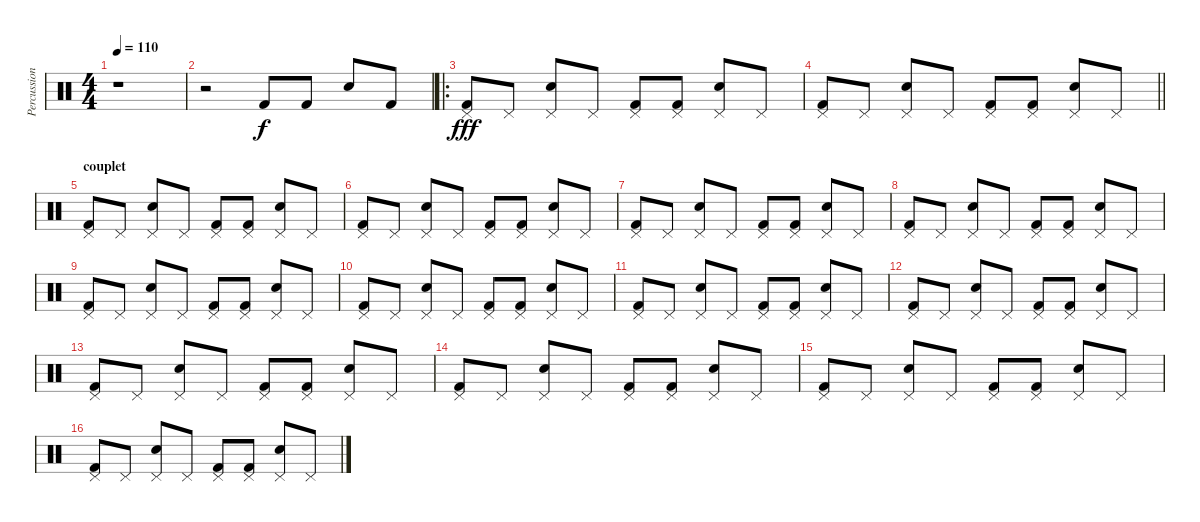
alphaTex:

\track ("Percussions" "Percussion") {instrument percussion}
\staff {score}
\articulation defaults
\ts (4 4)
\tempo 110
\clef neutral
\ks c
r.1{dy f} |
r.2 "Kick (hit) 2".8 "Kick (hit) 2".8 "Electric Snare (hit)".8 "Kick (hit) 2".8 |
\ro
("Pedal Hi-Hat (hit)" "Kick (hit) 2").8{dy fff} "Pedal Hi-Hat (hit)".8 ("Pedal Hi-Hat (hit)" "Electric Snare (hit)").8 "Pedal Hi-Hat (hit)".8 ("Pedal Hi-Hat (hit)" "Kick (hit) 2").8 ("Pedal Hi-Hat (hit)" "Kick (hit) 2").8 ("Pedal Hi-Hat (hit)" "Electric Snare (hit)").8 "Pedal Hi-Hat (hit)".8 |
\barLineRight lightlight
("Pedal Hi-Hat (hit)" "Kick (hit) 2").8 "Pedal Hi-Hat (hit)".8 ("Pedal Hi-Hat (hit)" "Electric Snare (hit)").8 "Pedal Hi-Hat (hit)".8 ("Pedal Hi-Hat (hit)" "Kick (hit) 2").8 ("Pedal Hi-Hat (hit)" "Kick (hit) 2").8 ("Pedal Hi-Hat (hit)" "Electric Snare (hit)").8 "Pedal Hi-Hat (hit)".8 |
\section ("" "couplet")
("Pedal Hi-Hat (hit)" "Kick (hit) 2").8 "Pedal Hi-Hat (hit)".8 ("Pedal Hi-Hat (hit)" "Electric Snare (hit)").8 "Pedal Hi-Hat (hit)".8 ("Pedal Hi-Hat (hit)" "Kick (hit) 2").8 ("Pedal Hi-Hat (hit)" "Kick (hit) 2").8 ("Pedal Hi-Hat (hit)" "Electric Snare (hit)").8 "Pedal Hi-Hat (hit)".8 |
("Pedal Hi-Hat (hit)" "Kick (hit) 2").8 "Pedal Hi-Hat (hit)".8 ("Pedal Hi-Hat (hit)" "Electric Snare (hit)").8 "Pedal Hi-Hat (hit)".8 ("Pedal Hi-Hat (hit)" "Kick (hit) 2").8 ("Pedal Hi-Hat (hit)" "Kick (hit) 2").8 ("Pedal Hi-Hat (hit)" "Electric Snare (hit)").8 "Pedal Hi-Hat (hit)".8 |
("Pedal Hi-Hat (hit)" "Kick (hit) 2").8 "Pedal Hi-Hat (hit)".8 ("Pedal Hi-Hat (hit)" "Electric Snare (hit)").8 "Pedal Hi-Hat (hit)".8 ("Pedal Hi-Hat (hit)" "Kick (hit) 2").8 ("Pedal Hi-Hat (hit)" "Kick (hit) 2").8 ("Pedal Hi-Hat (hit)" "Electric Snare (hit)").8 "Pedal Hi-Hat (hit)".8 |
("Pedal Hi-Hat (hit)" "Kick (hit) 2").8 "Pedal Hi-Hat (hit)".8 ("Pedal Hi-Hat (hit)" "Electric Snare (hit)").8 "Pedal Hi-Hat (hit)".8 ("Pedal Hi-Hat (hit)" "Kick (hit) 2").8 ("Pedal Hi-Hat (hit)" "Kick (hit) 2").8 ("Pedal Hi-Hat (hit)" "Electric Snare (hit)").8 "Pedal Hi-Hat (hit)".8 |
("Pedal Hi-Hat (hit)" "Kick (hit) 2").8 "Pedal Hi-Hat (hit)".8 ("Pedal Hi-Hat (hit)" "Electric Snare (hit)").8 "Pedal Hi-Hat (hit)".8 ("Pedal Hi-Hat (hit)" "Kick (hit) 2").8 ("Pedal Hi-Hat (hit)" "Kick (hit) 2").8 ("Pedal Hi-Hat (hit)" "Electric Snare (hit)").8 "Pedal Hi-Hat (hit)".8 |
("Pedal Hi-Hat (hit)" "Kick (hit) 2").8 "Pedal Hi-Hat (hit)".8 ("Pedal Hi-Hat (hit)" "Electric Snare (hit)").8 "Pedal Hi-Hat (hit)".8 ("Pedal Hi-Hat (hit)" "Kick (hit) 2").8 ("Pedal Hi-Hat (hit)" "Kick (hit) 2").8 ("Pedal Hi-Hat (hit)" "Electric Snare (hit)").8 "Pedal Hi-Hat (hit)".8 |
("Pedal Hi-Hat (hit)" "Kick (hit) 2").8 "Pedal Hi-Hat (hit)".8 ("Pedal Hi-Hat (hit)" "Electric Snare (hit)").8 "Pedal Hi-Hat (hit)".8 ("Pedal Hi-Hat (hit)" "Kick (hit) 2").8 ("Pedal Hi-Hat (hit)" "Kick (hit) 2").8 ("Pedal Hi-Hat (hit)" "Electric Snare (hit)").8 "Pedal Hi-Hat (hit)".8 |
("Pedal Hi-Hat (hit)" "Kick (hit) 2").8 "Pedal Hi-Hat (hit)".8 ("Pedal Hi-Hat (hit)" "Electric Snare (hit)").8 "Pedal Hi-Hat (hit)".8 ("Pedal Hi-Hat (hit)" "Kick (hit) 2").8 ("Pedal Hi-Hat (hit)" "Kick (hit) 2").8 ("Pedal Hi-Hat (hit)" "Electric Snare (hit)").8 "Pedal Hi-Hat (hit)".8 |
("Pedal Hi-Hat (hit)" "Kick (hit) 2").8 "Pedal Hi-Hat (hit)".8 ("Pedal Hi-Hat (hit)" "Electric Snare (hit)").8 "Pedal Hi-Hat (hit)".8 ("Pedal Hi-Hat (hit)" "Kick (hit) 2").8 ("Pedal Hi-Hat (hit)" "Kick (hit) 2").8 ("Pedal Hi-Hat (hit)" "Electric Snare (hit)").8 "Pedal Hi-Hat (hit)".8 |
("Pedal Hi-Hat (hit)" "Kick (hit) 2").8 "Pedal Hi-Hat (hit)".8 ("Pedal Hi-Hat (hit)" "Electric Snare (hit)").8 "Pedal Hi-Hat (hit)".8 ("Pedal Hi-Hat (hit)" "Kick (hit) 2").8 ("Pedal Hi-Hat (hit)" "Kick (hit) 2").8 ("Pedal Hi-Hat (hit)" "Electric Snare (hit)").8 "Pedal Hi-Hat (hit)".8 |
("Pedal Hi-Hat (hit)" "Kick (hit) 2").8 "Pedal Hi-Hat (hit)".8 ("Pedal Hi-Hat (hit)" "Electric Snare (hit)").8 "Pedal Hi-Hat (hit)".8 ("Pedal Hi-Hat (hit)" "Kick (hit) 2").8 ("Pedal Hi-Hat (hit)" "Kick (hit) 2").8 ("Pedal Hi-Hat (hit)" "Electric Snare (hit)").8 "Pedal Hi-Hat (hit)".8 |
("Pedal Hi-Hat (hit)" "Kick (hit) 2").8 "Pedal Hi-Hat (hit)".8 ("Pedal Hi-Hat (hit)" "Electric Snare (hit)").8 "Pedal Hi-Hat (hit)".8 ("Pedal Hi-Hat (hit)" "Kick (hit) 2").8 ("Pedal Hi-Hat (hit)" "Kick (hit) 2").8 ("Pedal Hi-Hat (hit)" "Electric Snare (hit)").8 "Pedal Hi-Hat (hit)".8
